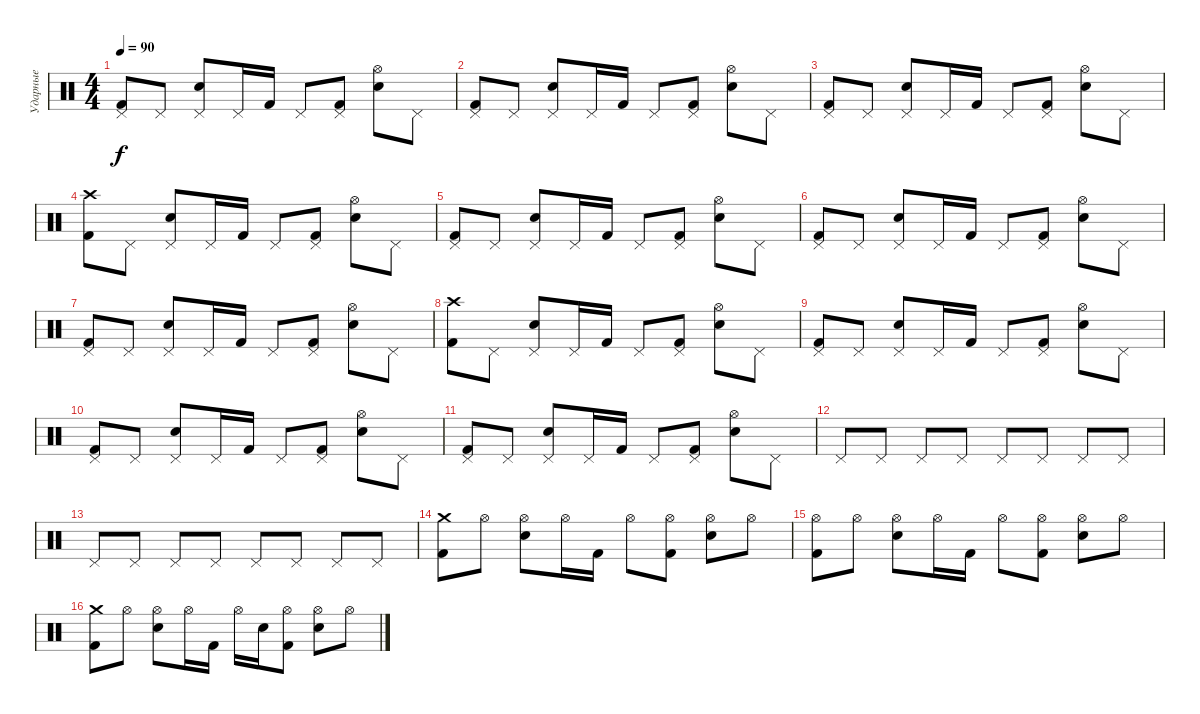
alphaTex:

\track ("Ударные" "Ударные") {instrument percussion}
\staff {score}
\articulation defaults
\ts (4 4)
\tempo 90
\clef neutral
\ks c
("Pedal Hi-Hat (hit)" "Kick (hit) 2").8{dy f} "Pedal Hi-Hat (hit)".8 ("Pedal Hi-Hat (hit)" "Snare (hit) 2").8 "Pedal Hi-Hat (hit)".16 "Kick (hit) 2".16 "Pedal Hi-Hat (hit)".8 ("Pedal Hi-Hat (hit)" "Kick (hit) 2").8 ("Hi-Hat (open)" "Snare (hit) 2").8 "Pedal Hi-Hat (hit)".8 |
("Pedal Hi-Hat (hit)" "Kick (hit) 2").8 "Pedal Hi-Hat (hit)".8 ("Pedal Hi-Hat (hit)" "Snare (hit) 2").8 "Pedal Hi-Hat (hit)".16 "Kick (hit) 2".16 "Pedal Hi-Hat (hit)".8 ("Pedal Hi-Hat (hit)" "Kick (hit) 2").8 ("Hi-Hat (open)" "Snare (hit) 2").8 "Pedal Hi-Hat (hit)".8 |
("Pedal Hi-Hat (hit)" "Kick (hit) 2").8 "Pedal Hi-Hat (hit)".8 ("Pedal Hi-Hat (hit)" "Snare (hit) 2").8 "Pedal Hi-Hat (hit)".16 "Kick (hit) 2".16 "Pedal Hi-Hat (hit)".8 ("Pedal Hi-Hat (hit)" "Kick (hit) 2").8 ("Hi-Hat (open)" "Snare (hit) 2").8 "Pedal Hi-Hat (hit)".8 |
("Crash high (hit)" "Kick (hit) 2").8 "Pedal Hi-Hat (hit)".8 ("Pedal Hi-Hat (hit)" "Snare (hit) 2").8 "Pedal Hi-Hat (hit)".16 "Kick (hit) 2".16 "Pedal Hi-Hat (hit)".8 ("Pedal Hi-Hat (hit)" "Kick (hit) 2").8 ("Hi-Hat (open)" "Snare (hit) 2").8 "Pedal Hi-Hat (hit)".8 |
("Pedal Hi-Hat (hit)" "Kick (hit) 2").8 "Pedal Hi-Hat (hit)".8 ("Pedal Hi-Hat (hit)" "Snare (hit) 2").8 "Pedal Hi-Hat (hit)".16 "Kick (hit) 2".16 "Pedal Hi-Hat (hit)".8 ("Pedal Hi-Hat (hit)" "Kick (hit) 2").8 ("Hi-Hat (open)" "Snare (hit) 2").8 "Pedal Hi-Hat (hit)".8 |
("Pedal Hi-Hat (hit)" "Kick (hit) 2").8 "Pedal Hi-Hat (hit)".8 ("Pedal Hi-Hat (hit)" "Snare (hit) 2").8 "Pedal Hi-Hat (hit)".16 "Kick (hit) 2".16 "Pedal Hi-Hat (hit)".8 ("Pedal Hi-Hat (hit)" "Kick (hit) 2").8 ("Hi-Hat (open)" "Snare (hit) 2").8 "Pedal Hi-Hat (hit)".8 |
("Pedal Hi-Hat (hit)" "Kick (hit) 2").8 "Pedal Hi-Hat (hit)".8 ("Pedal Hi-Hat (hit)" "Snare (hit) 2").8 "Pedal Hi-Hat (hit)".16 "Kick (hit) 2".16 "Pedal Hi-Hat (hit)".8 ("Pedal Hi-Hat (hit)" "Kick (hit) 2").8 ("Hi-Hat (open)" "Snare (hit) 2").8 "Pedal Hi-Hat (hit)".8 |
("Crash high (hit)" "Kick (hit) 2").8 "Pedal Hi-Hat (hit)".8 ("Pedal Hi-Hat (hit)" "Snare (hit) 2").8 "Pedal Hi-Hat (hit)".16 "Kick (hit) 2".16 "Pedal Hi-Hat (hit)".8 ("Pedal Hi-Hat (hit)" "Kick (hit) 2").8 ("Hi-Hat (open)" "Snare (hit) 2").8 "Pedal Hi-Hat (hit)".8 |
("Pedal Hi-Hat (hit)" "Kick (hit) 2").8 "Pedal Hi-Hat (hit)".8 ("Pedal Hi-Hat (hit)" "Snare (hit) 2").8 "Pedal Hi-Hat (hit)".16 "Kick (hit) 2".16 "Pedal Hi-Hat (hit)".8 ("Pedal Hi-Hat (hit)" "Kick (hit) 2").8 ("Hi-Hat (open)" "Snare (hit) 2").8 "Pedal Hi-Hat (hit)".8 |
("Pedal Hi-Hat (hit)" "Kick (hit) 2").8 "Pedal Hi-Hat (hit)".8 ("Pedal Hi-Hat (hit)" "Snare (hit) 2").8 "Pedal Hi-Hat (hit)".16 "Kick (hit) 2".16 "Pedal Hi-Hat (hit)".8 ("Pedal Hi-Hat (hit)" "Kick (hit) 2").8 ("Hi-Hat (open)" "Snare (hit) 2").8 "Pedal Hi-Hat (hit)".8 |
("Pedal Hi-Hat (hit)" "Kick (hit) 2").8 "Pedal Hi-Hat (hit)".8 ("Pedal Hi-Hat (hit)" "Snare (hit) 2").8 "Pedal Hi-Hat (hit)".16 "Kick (hit) 2".16 "Pedal Hi-Hat (hit)".8 ("Pedal Hi-Hat (hit)" "Kick (hit) 2").8 ("Hi-Hat (open)" "Snare (hit) 2").8 "Pedal Hi-Hat (hit)".8 |
"Pedal Hi-Hat (hit)".8 "Pedal Hi-Hat (hit)".8 "Pedal Hi-Hat (hit)".8 "Pedal Hi-Hat (hit)".8 "Pedal Hi-Hat (hit)".8 "Pedal Hi-Hat (hit)".8 "Pedal Hi-Hat (hit)".8 "Pedal Hi-Hat (hit)".8 |
"Pedal Hi-Hat (hit)".8 "Pedal Hi-Hat (hit)".8 "Pedal Hi-Hat (hit)".8 "Pedal Hi-Hat (hit)".8 "Pedal Hi-Hat (hit)".8 "Pedal Hi-Hat (hit)".8 "Pedal Hi-Hat (hit)".8 "Pedal Hi-Hat (hit)".8 |
("Crash medium (hit)" "Kick (hit) 2").8 "Hi-Hat (open)".8 ("Hi-Hat (open)" "Snare (hit) 2").8 "Hi-Hat (open)".16 "Kick (hit) 2".16 "Hi-Hat (open)".8 ("Hi-Hat (open)" "Kick (hit) 2").8 ("Hi-Hat (open)" "Snare (hit) 2").8 "Hi-Hat (open)".8 |
("Hi-Hat (open)" "Kick (hit) 2").8 "Hi-Hat (open)".8 ("Hi-Hat (open)" "Snare (hit) 2").8 "Hi-Hat (open)".16 "Kick (hit) 2".16 "Hi-Hat (open)".8 ("Hi-Hat (open)" "Kick (hit) 2").8 ("Hi-Hat (open)" "Snare (hit) 2").8 "Hi-Hat (open)".8 |
("Crash medium (hit)" "Kick (hit) 2").8 "Hi-Hat (open)".8 ("Hi-Hat (open)" "Snare (hit) 2").8 "Hi-Hat (open)".16 "Kick (hit) 2".16 "Hi-Hat (open)".16 "Snare (hit) 2".16 ("Hi-Hat (open)" "Kick (hit) 2").8 ("Hi-Hat (open)" "Snare (hit) 2").8 "Hi-Hat (open)".8
